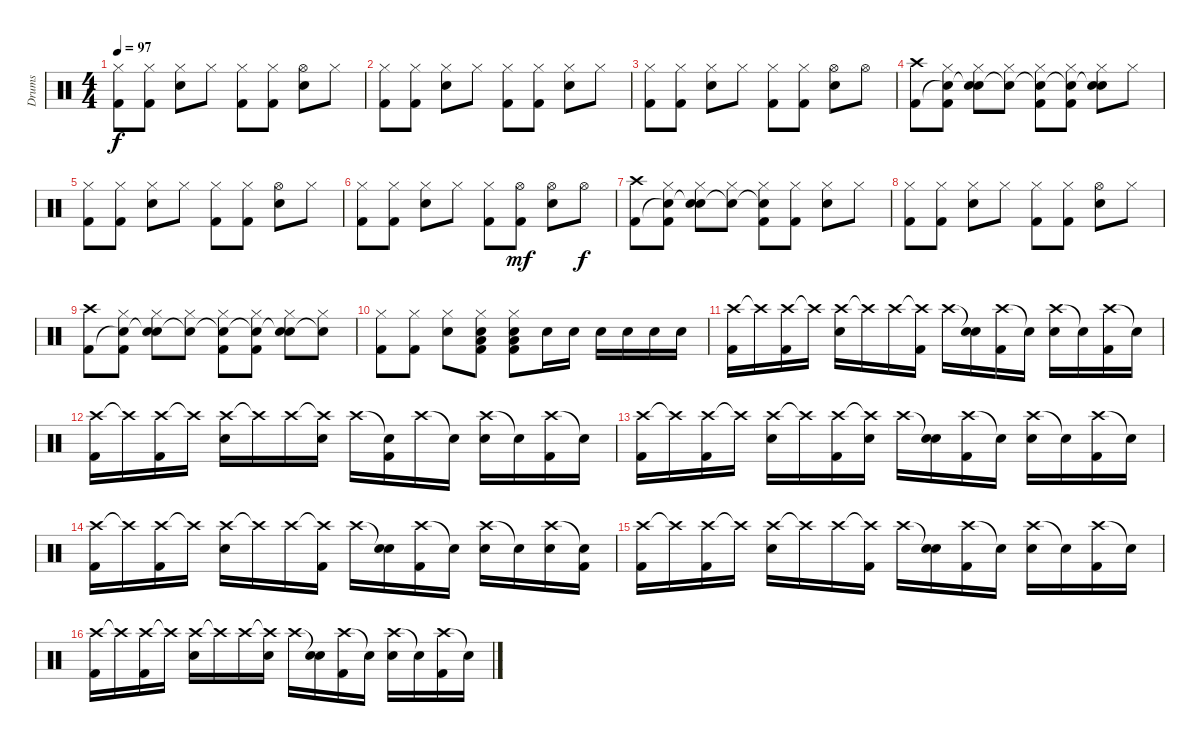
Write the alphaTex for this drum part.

\track ("Drums" "Drums") {instrument percussion}
\staff {score}
\articulation defaults
\ts (4 4)
\tempo 97
\clef neutral
\ks aminor
("Hi-Hat (closed)" "Kick (hit) 2").8{dy f} ("Hi-Hat (closed)" "Kick (hit) 2").8 ("Hi-Hat (closed)" "Snare (hit) 2").8 "Hi-Hat (closed)".8 ("Hi-Hat (closed)" "Kick (hit) 2").8 ("Hi-Hat (closed)" "Kick (hit) 2").8 ("Hi-Hat (open)" "Snare (hit) 2").8 "Hi-Hat (closed)".8 |
("Hi-Hat (closed)" "Kick (hit) 2").8 ("Hi-Hat (closed)" "Kick (hit) 2").8 ("Hi-Hat (closed)" "Snare (hit) 2").8 "Hi-Hat (closed)".8 ("Hi-Hat (closed)" "Kick (hit) 2").8 ("Hi-Hat (closed)" "Kick (hit) 2").8 ("Hi-Hat (closed)" "Snare (hit) 2").8 "Hi-Hat (closed)".8 |
("Hi-Hat (closed)" "Kick (hit) 2").8 ("Hi-Hat (closed)" "Kick (hit) 2").8 ("Hi-Hat (closed)" "Snare (hit) 2").8 "Hi-Hat (closed)".8 ("Hi-Hat (closed)" "Kick (hit) 2").8 ("Hi-Hat (closed)" "Kick (hit) 2").8 ("Hi-Hat (open)" "Snare (hit) 2").8 "Hi-Hat (open)".8 |
("Crash high (hit)" "Kick (hit) 2").8 ("Hi-Hat (closed)" "Snare (hit)"{t} "Kick (hit) 2").8 ("Hi-Hat (closed)" "Snare (hit)"{t} "Snare (hit) 2").8 ("Hi-Hat (closed)" "Snare (hit)"{t}).8 ("Hi-Hat (closed)" "Snare (hit)"{t} "Kick (hit) 2").8 ("Hi-Hat (closed)" "Snare (hit)"{t} "Kick (hit) 2").8 ("Hi-Hat (closed)" "Snare (hit)"{t} "Snare (hit) 2").8 "Hi-Hat (closed)".8 |
("Hi-Hat (closed)" "Kick (hit) 2").8 ("Hi-Hat (closed)" "Kick (hit) 2").8 ("Hi-Hat (closed)" "Snare (hit) 2").8 "Hi-Hat (closed)".8 ("Hi-Hat (closed)" "Kick (hit) 2").8 ("Hi-Hat (closed)" "Kick (hit) 2").8 ("Hi-Hat (open)" "Snare (hit) 2").8 "Hi-Hat (closed)".8 |
("Hi-Hat (closed)" "Kick (hit) 2").8 ("Hi-Hat (closed)" "Kick (hit) 2").8 ("Hi-Hat (closed)" "Snare (hit) 2").8 "Hi-Hat (closed)".8 ("Hi-Hat (closed)" "Kick (hit) 2").8 ("Hi-Hat (open)" "Kick (hit) 2").8{dy mf} ("Hi-Hat (open)" "Snare (hit) 2").8 "Hi-Hat (open)".8{dy f} |
("Crash high (hit)" "Kick (hit) 2").8 ("Hi-Hat (closed)" "Snare (hit)"{t} "Kick (hit) 2").8 ("Hi-Hat (closed)" "Snare (hit)"{t} "Snare (hit) 2").8 ("Hi-Hat (closed)" "Snare (hit)"{t}).8 ("Hi-Hat (closed)" "Snare (hit)"{t} "Kick (hit) 2").8 ("Hi-Hat (closed)" "Kick (hit) 2").8 ("Hi-Hat (closed)" "Snare (hit) 2").8 "Hi-Hat (closed)".8 |
("Hi-Hat (closed)" "Kick (hit) 2").8 ("Hi-Hat (closed)" "Kick (hit) 2").8 ("Hi-Hat (closed)" "Snare (hit) 2").8 "Hi-Hat (closed)".8 ("Hi-Hat (closed)" "Kick (hit) 2").8 ("Hi-Hat (closed)" "Kick (hit) 2").8 ("Hi-Hat (open)" "Snare (hit) 2").8 "Hi-Hat (closed)".8 |
("Crash high (hit)" "Kick (hit) 2").8 ("Hi-Hat (closed)" "Snare (hit)"{t} "Kick (hit) 2").8 ("Hi-Hat (closed)" "Snare (hit)"{t} "Snare (hit) 2").8 ("Hi-Hat (closed)" "Snare (hit)"{t}).8 ("Hi-Hat (closed)" "Snare (hit)"{t} "Kick (hit) 2").8 ("Hi-Hat (closed)" "Snare (hit)"{t} "Kick (hit) 2").8 ("Hi-Hat (closed)" "Snare (hit)"{t} "Snare (hit) 2").8 ("Hi-Hat (closed)" "Snare (hit)"{t}).8 |
("Hi-Hat (closed)" "Kick (hit) 2").8 ("Hi-Hat (closed)" "Kick (hit) 2").8 ("Hi-Hat (closed)" "Snare (hit) 2").8 ("Hi-Hat (closed)" "Snare (hit) 2" "Low Floor Tom (hit)" "Kick (hit) 2").8 ("Hi-Hat (closed)" "Snare (hit) 2" "Low Floor Tom (hit)" "Kick (hit) 2").8 "Snare (hit) 2".16 "Snare (hit) 2".16 "Snare (hit) 2".16 "Snare (hit) 2".16 "Snare (hit) 2".16 "Snare (hit) 2".16 |
("Crash high (hit)" "Kick (hit) 2").16 "Crash high (hit)"{t}.16 ("Crash high (hit)" "Kick (hit) 2").16 "Crash high (hit)"{t}.16 ("Crash high (hit)" "Snare (hit) 2").16 "Crash high (hit)"{t}.16 "Crash high (hit)".16 ("Crash high (hit)"{t} "Kick (hit) 2").16 "Crash high (hit)".16 ("Snare (hit)"{t} "Snare (hit) 2").16 ("Crash high (hit)" "Kick (hit) 2").16 "Snare (hit)"{t}.16 ("Crash high (hit)" "Snare (hit) 2").16 "Snare (hit)"{t}.16 ("Crash high (hit)" "Kick (hit) 2").16 "Snare (hit)"{t}.16 |
("Crash high (hit)" "Kick (hit) 2").16 "Crash high (hit)"{t}.16 ("Crash high (hit)" "Kick (hit) 2").16 "Crash high (hit)"{t}.16 ("Crash high (hit)" "Snare (hit) 2").16 "Crash high (hit)"{t}.16 "Crash high (hit)".16 ("Crash high (hit)"{t} "Snare (hit) 2").16 "Crash high (hit)".16 ("Snare (hit)"{t} "Kick (hit) 2").16 "Crash high (hit)".16 "Snare (hit)"{t}.16 ("Crash high (hit)" "Snare (hit) 2").16 "Snare (hit)"{t}.16 ("Crash high (hit)" "Kick (hit) 2").16 "Snare (hit)"{t}.16 |
("Crash high (hit)" "Kick (hit) 2").16 "Crash high (hit)"{t}.16 ("Crash high (hit)" "Kick (hit) 2").16 "Crash high (hit)"{t}.16 ("Crash high (hit)" "Snare (hit) 2").16 "Crash high (hit)"{t}.16 ("Crash high (hit)" "Kick (hit) 2").16 ("Crash high (hit)"{t} "Snare (hit) 2").16 "Crash high (hit)".16 ("Snare (hit)"{t} "Snare (hit) 2").16 ("Crash high (hit)" "Kick (hit) 2").16 "Snare (hit)"{t}.16 ("Crash high (hit)" "Snare (hit) 2").16 "Snare (hit)"{t}.16 ("Crash high (hit)" "Kick (hit) 2").16 "Snare (hit)"{t}.16 |
("Crash high (hit)" "Kick (hit) 2").16 "Crash high (hit)"{t}.16 ("Crash high (hit)" "Kick (hit) 2").16 "Crash high (hit)"{t}.16 ("Crash high (hit)" "Snare (hit) 2").16 "Crash high (hit)"{t}.16 "Crash high (hit)".16 ("Crash high (hit)"{t} "Kick (hit) 2").16 "Crash high (hit)".16 ("Snare (hit)"{t} "Snare (hit) 2").16 ("Crash high (hit)" "Kick (hit) 2").16 "Snare (hit)"{t}.16 ("Crash high (hit)" "Snare (hit) 2").16 "Snare (hit)"{t}.16 ("Crash high (hit)" "Snare (hit) 2").16 ("Snare (hit)"{t} "Kick (hit) 2").16 |
("Crash high (hit)" "Kick (hit) 2").16 "Crash high (hit)"{t}.16 ("Crash high (hit)" "Kick (hit) 2").16 "Crash high (hit)"{t}.16 ("Crash high (hit)" "Snare (hit) 2").16 "Crash high (hit)"{t}.16 "Crash high (hit)".16 ("Crash high (hit)"{t} "Kick (hit) 2").16 "Crash high (hit)".16 ("Snare (hit)"{t} "Snare (hit) 2").16 ("Crash high (hit)" "Kick (hit) 2").16 "Snare (hit)"{t}.16 ("Crash high (hit)" "Snare (hit) 2").16 "Snare (hit)"{t}.16 ("Crash high (hit)" "Kick (hit) 2").16 "Snare (hit)"{t}.16 |
("Crash high (hit)" "Kick (hit) 2").16 "Crash high (hit)"{t}.16 ("Crash high (hit)" "Kick (hit) 2").16 "Crash high (hit)"{t}.16 ("Crash high (hit)" "Snare (hit) 2").16 "Crash high (hit)"{t}.16 "Crash high (hit)".16 ("Crash high (hit)"{t} "Snare (hit) 2").16 "Crash high (hit)".16 ("Snare (hit)"{t} "Snare (hit) 2").16 ("Crash high (hit)" "Kick (hit) 2").16 "Snare (hit)"{t}.16 ("Crash high (hit)" "Snare (hit) 2").16 "Snare (hit)"{t}.16 ("Crash high (hit)" "Kick (hit) 2").16 "Snare (hit)"{t}.16
